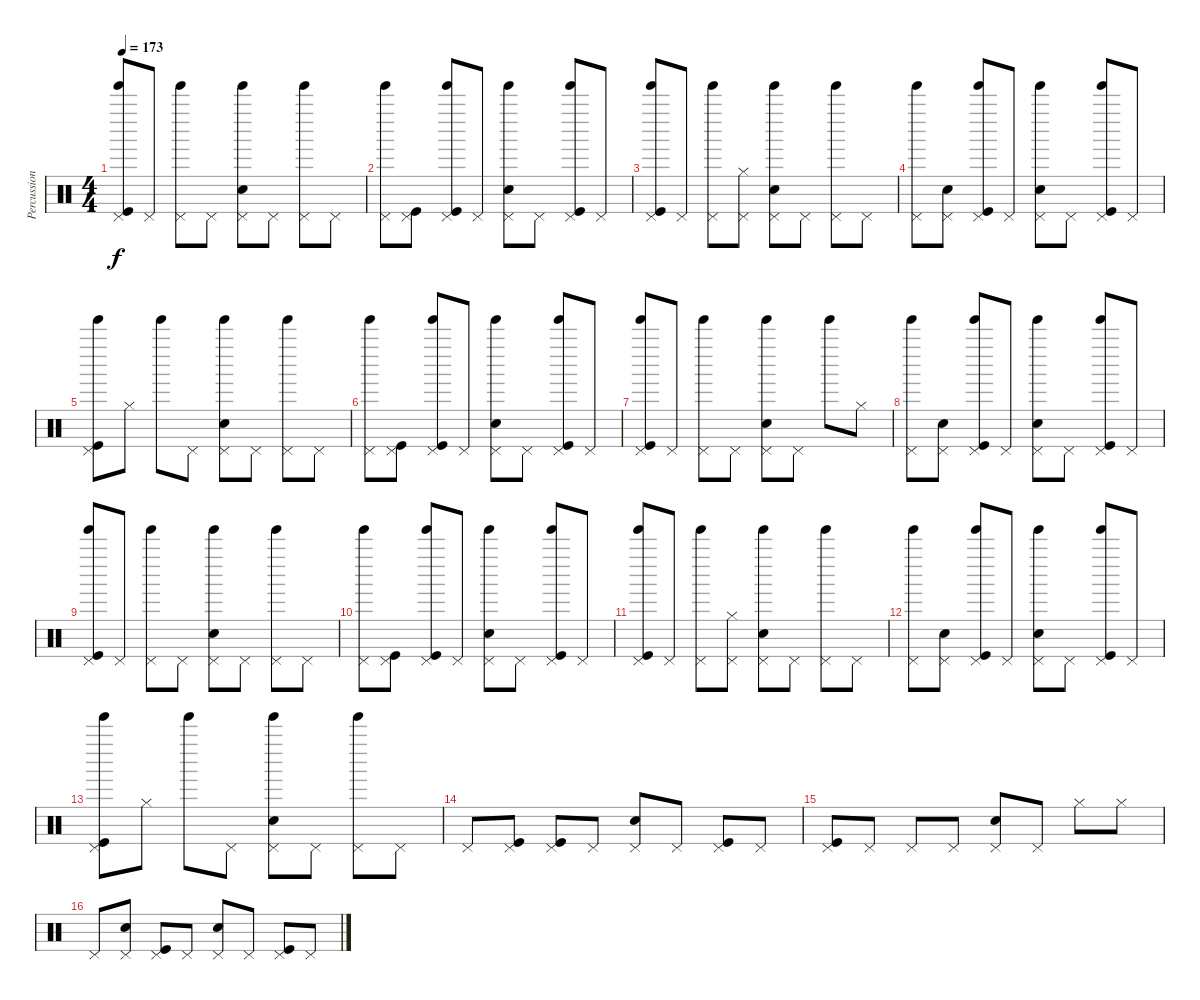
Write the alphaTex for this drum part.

\track ("Percussion" "Percussion") {instrument percussion}
\staff {score}
\articulation defaults
\ts (4 4)
\tempo 173
\clef neutral
\ks c
("Kick (hit)" "Tinkle Bell (hit)" "Pedal Hi-Hat (hit)").8{dy f} "Pedal Hi-Hat (hit)".8 ("Tinkle Bell (hit)" "Pedal Hi-Hat (hit)").8 "Pedal Hi-Hat (hit)".8 ("Snare (hit) 2" "Tinkle Bell (hit)" "Pedal Hi-Hat (hit)").8 "Pedal Hi-Hat (hit)".8 ("Tinkle Bell (hit)" "Pedal Hi-Hat (hit)").8 "Pedal Hi-Hat (hit)".8 |
("Tinkle Bell (hit)" "Pedal Hi-Hat (hit)").8 ("Kick (hit)" "Pedal Hi-Hat (hit)").8 ("Kick (hit)" "Tinkle Bell (hit)" "Pedal Hi-Hat (hit)").8 "Pedal Hi-Hat (hit)".8 ("Snare (hit) 2" "Tinkle Bell (hit)" "Pedal Hi-Hat (hit)").8 "Pedal Hi-Hat (hit)".8 ("Kick (hit)" "Tinkle Bell (hit)" "Pedal Hi-Hat (hit)").8 "Pedal Hi-Hat (hit)".8 |
("Kick (hit)" "Tinkle Bell (hit)" "Pedal Hi-Hat (hit)").8 "Pedal Hi-Hat (hit)".8 ("Tinkle Bell (hit)" "Pedal Hi-Hat (hit)").8 ("Hi-Hat (closed)" "Pedal Hi-Hat (hit)").8 ("Snare (hit) 2" "Tinkle Bell (hit)" "Pedal Hi-Hat (hit)").8 "Pedal Hi-Hat (hit)".8 ("Tinkle Bell (hit)" "Pedal Hi-Hat (hit)").8 "Pedal Hi-Hat (hit)".8 |
("Tinkle Bell (hit)" "Pedal Hi-Hat (hit)").8 ("Snare (hit) 2" "Pedal Hi-Hat (hit)").8 ("Kick (hit)" "Tinkle Bell (hit)" "Pedal Hi-Hat (hit)").8 "Pedal Hi-Hat (hit)".8 ("Snare (hit) 2" "Tinkle Bell (hit)" "Pedal Hi-Hat (hit)").8 "Pedal Hi-Hat (hit)".8 ("Kick (hit)" "Tinkle Bell (hit)" "Pedal Hi-Hat (hit)").8 "Pedal Hi-Hat (hit)".8 |
("Kick (hit)" "Tinkle Bell (hit)" "Pedal Hi-Hat (hit)").8 "Hi-Hat (closed)".8 "Tinkle Bell (hit)".8 "Pedal Hi-Hat (hit)".8 ("Snare (hit) 2" "Tinkle Bell (hit)" "Pedal Hi-Hat (hit)").8 "Pedal Hi-Hat (hit)".8 ("Tinkle Bell (hit)" "Pedal Hi-Hat (hit)").8 "Pedal Hi-Hat (hit)".8 |
("Tinkle Bell (hit)" "Pedal Hi-Hat (hit)").8 ("Kick (hit)" "Pedal Hi-Hat (hit)").8 ("Kick (hit)" "Tinkle Bell (hit)" "Pedal Hi-Hat (hit)").8 "Pedal Hi-Hat (hit)".8 ("Snare (hit) 2" "Tinkle Bell (hit)" "Pedal Hi-Hat (hit)").8 "Pedal Hi-Hat (hit)".8 ("Kick (hit)" "Tinkle Bell (hit)" "Pedal Hi-Hat (hit)").8 "Pedal Hi-Hat (hit)".8 |
("Kick (hit)" "Tinkle Bell (hit)" "Pedal Hi-Hat (hit)").8 "Pedal Hi-Hat (hit)".8 ("Tinkle Bell (hit)" "Pedal Hi-Hat (hit)").8 "Pedal Hi-Hat (hit)".8 ("Snare (hit) 2" "Tinkle Bell (hit)" "Pedal Hi-Hat (hit)").8 "Pedal Hi-Hat (hit)".8 "Tinkle Bell (hit)".8 "Hi-Hat (closed)".8 |
("Tinkle Bell (hit)" "Pedal Hi-Hat (hit)").8 ("Snare (hit) 2" "Pedal Hi-Hat (hit)").8 ("Kick (hit)" "Tinkle Bell (hit)" "Pedal Hi-Hat (hit)").8 "Pedal Hi-Hat (hit)".8 ("Snare (hit) 2" "Tinkle Bell (hit)" "Pedal Hi-Hat (hit)").8 "Pedal Hi-Hat (hit)".8 ("Kick (hit)" "Tinkle Bell (hit)" "Pedal Hi-Hat (hit)").8 "Pedal Hi-Hat (hit)".8 |
("Kick (hit)" "Tinkle Bell (hit)" "Pedal Hi-Hat (hit)").8 "Pedal Hi-Hat (hit)".8 ("Tinkle Bell (hit)" "Pedal Hi-Hat (hit)").8 "Pedal Hi-Hat (hit)".8 ("Snare (hit) 2" "Tinkle Bell (hit)" "Pedal Hi-Hat (hit)").8 "Pedal Hi-Hat (hit)".8 ("Tinkle Bell (hit)" "Pedal Hi-Hat (hit)").8 "Pedal Hi-Hat (hit)".8 |
("Tinkle Bell (hit)" "Pedal Hi-Hat (hit)").8 ("Kick (hit)" "Pedal Hi-Hat (hit)").8 ("Kick (hit)" "Tinkle Bell (hit)" "Pedal Hi-Hat (hit)").8 "Pedal Hi-Hat (hit)".8 ("Snare (hit) 2" "Tinkle Bell (hit)" "Pedal Hi-Hat (hit)").8 "Pedal Hi-Hat (hit)".8 ("Kick (hit)" "Tinkle Bell (hit)" "Pedal Hi-Hat (hit)").8 "Pedal Hi-Hat (hit)".8 |
("Kick (hit)" "Tinkle Bell (hit)" "Pedal Hi-Hat (hit)").8 "Pedal Hi-Hat (hit)".8 ("Tinkle Bell (hit)" "Pedal Hi-Hat (hit)").8 ("Hi-Hat (closed)" "Pedal Hi-Hat (hit)").8 ("Snare (hit) 2" "Tinkle Bell (hit)" "Pedal Hi-Hat (hit)").8 "Pedal Hi-Hat (hit)".8 ("Tinkle Bell (hit)" "Pedal Hi-Hat (hit)").8 "Pedal Hi-Hat (hit)".8 |
("Tinkle Bell (hit)" "Pedal Hi-Hat (hit)").8 ("Snare (hit) 2" "Pedal Hi-Hat (hit)").8 ("Kick (hit)" "Tinkle Bell (hit)" "Pedal Hi-Hat (hit)").8 "Pedal Hi-Hat (hit)".8 ("Snare (hit) 2" "Tinkle Bell (hit)" "Pedal Hi-Hat (hit)").8 "Pedal Hi-Hat (hit)".8 ("Kick (hit)" "Tinkle Bell (hit)" "Pedal Hi-Hat (hit)").8 "Pedal Hi-Hat (hit)".8 |
("Kick (hit)" "Tinkle Bell (hit)" "Pedal Hi-Hat (hit)").8 "Hi-Hat (closed)".8 "Tinkle Bell (hit)".8 "Pedal Hi-Hat (hit)".8 ("Snare (hit) 2" "Tinkle Bell (hit)" "Pedal Hi-Hat (hit)").8 "Pedal Hi-Hat (hit)".8 ("Tinkle Bell (hit)" "Pedal Hi-Hat (hit)").8 "Pedal Hi-Hat (hit)".8 |
"Pedal Hi-Hat (hit)".8 ("Kick (hit)" "Pedal Hi-Hat (hit)").8 ("Kick (hit)" "Pedal Hi-Hat (hit)").8 "Pedal Hi-Hat (hit)".8 ("Snare (hit) 2" "Pedal Hi-Hat (hit)").8 "Pedal Hi-Hat (hit)".8 ("Kick (hit)" "Pedal Hi-Hat (hit)").8 "Pedal Hi-Hat (hit)".8 |
("Kick (hit)" "Pedal Hi-Hat (hit)").8 "Pedal Hi-Hat (hit)".8 "Pedal Hi-Hat (hit)".8 "Pedal Hi-Hat (hit)".8 ("Snare (hit) 2" "Pedal Hi-Hat (hit)").8 "Pedal Hi-Hat (hit)".8 "Hi-Hat (closed)".8 "Hi-Hat (closed)".8 |
"Pedal Hi-Hat (hit)".8 ("Snare (hit) 2" "Pedal Hi-Hat (hit)").8 ("Kick (hit)" "Pedal Hi-Hat (hit)").8 "Pedal Hi-Hat (hit)".8 ("Snare (hit) 2" "Pedal Hi-Hat (hit)").8 "Pedal Hi-Hat (hit)".8 ("Kick (hit)" "Pedal Hi-Hat (hit)").8 "Pedal Hi-Hat (hit)".8
